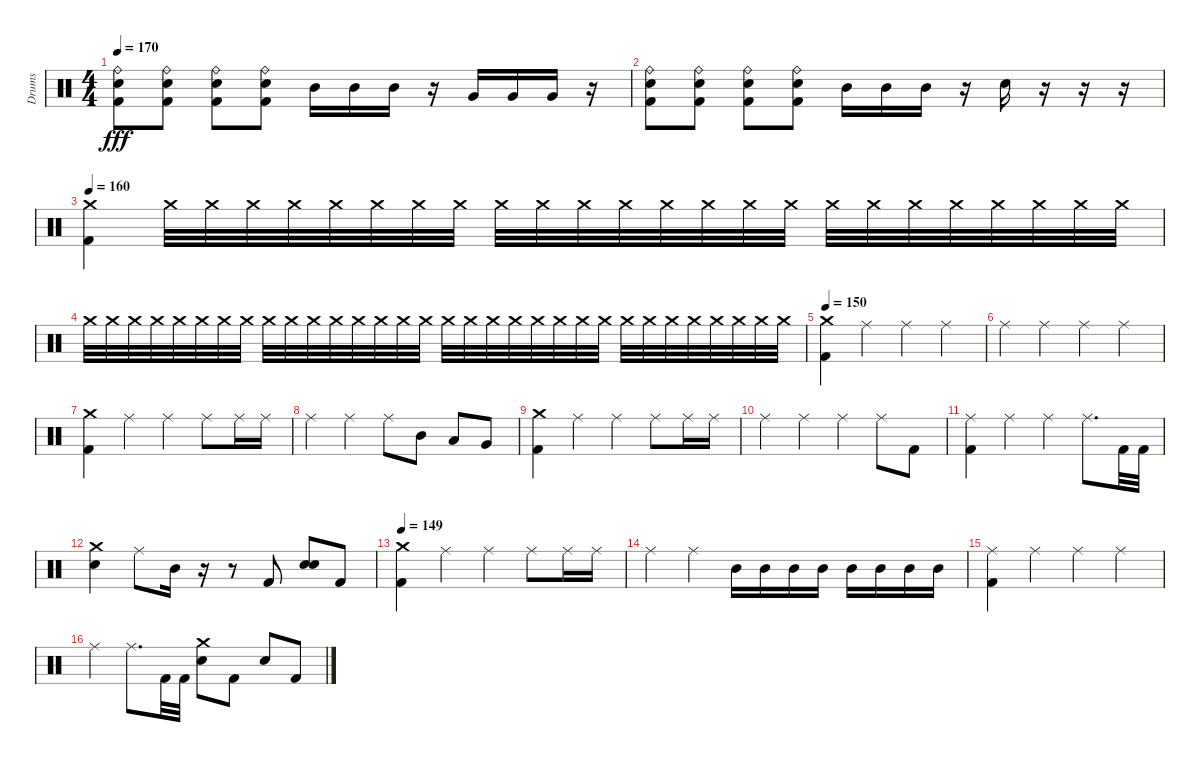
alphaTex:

\track ("Drums" "Drums") {instrument percussion}
\staff {score}
\articulation defaults
\ts (4 4)
\tempo 170
\clef neutral
\ks c
("Ride (bell)" "Electric Snare (hit)" "Kick (hit) 2").8{dy fff} ("Ride (bell)" "Electric Snare (hit)" "Kick (hit) 2").8 ("Ride (bell)" "Electric Snare (hit)" "Kick (hit) 2").8 ("Ride (bell)" "Electric Snare (hit)" "Kick (hit) 2").8 "Mid Tom (hit)".16 "Mid Tom (hit)".16 "Mid Tom (hit)".16 r.16 "Very Low Tom (hit)".16 "Very Low Tom (hit)".16 "Very Low Tom (hit)".16 r.16 |
("Ride (bell)" "Electric Snare (hit)" "Kick (hit) 2").8 ("Ride (bell)" "Electric Snare (hit)" "Kick (hit) 2").8 ("Ride (bell)" "Electric Snare (hit)" "Kick (hit) 2").8 ("Ride (bell)" "Electric Snare (hit)" "Kick (hit) 2").8 "Mid Tom (hit)".16 "Mid Tom (hit)".16 "Mid Tom (hit)".16 r.16 "Electric Snare (hit)".16 r.16 r.16 r.16 |
\tempo 160
("Crash medium (hit)" "Kick (hit) 2").4 "Crash medium (hit)".32{volume 6} "Crash medium (hit)".32 "Crash medium (hit)".32 "Crash medium (hit)".32 "Crash medium (hit)".32 "Crash medium (hit)".32 "Crash medium (hit)".32 "Crash medium (hit)".32 "Crash medium (hit)".32{volume 8} "Crash medium (hit)".32 "Crash medium (hit)".32 "Crash medium (hit)".32 "Crash medium (hit)".32 "Crash medium (hit)".32 "Crash medium (hit)".32 "Crash medium (hit)".32 "Crash medium (hit)".32 "Crash medium (hit)".32 "Crash medium (hit)".32 "Crash medium (hit)".32 "Crash medium (hit)".32 "Crash medium (hit)".32 "Crash medium (hit)".32 "Crash medium (hit)".32 |
"Crash medium (hit)".32 "Crash medium (hit)".32 "Crash medium (hit)".32 "Crash medium (hit)".32 "Crash medium (hit)".32 "Crash medium (hit)".32 "Crash medium (hit)".32 "Crash medium (hit)".32 "Crash medium (hit)".32 "Crash medium (hit)".32 "Crash medium (hit)".32 "Crash medium (hit)".32 "Crash medium (hit)".32 "Crash medium (hit)".32 "Crash medium (hit)".32 "Crash medium (hit)".32 "Crash medium (hit)".32 "Crash medium (hit)".32 "Crash medium (hit)".32 "Crash medium (hit)".32 "Crash medium (hit)".32 "Crash medium (hit)".32 "Crash medium (hit)".32 "Crash medium (hit)".32 "Crash medium (hit)".32 "Crash medium (hit)".32 "Crash medium (hit)".32 "Crash medium (hit)".32 "Crash medium (hit)".32 "Crash medium (hit)".32 "Crash medium (hit)".32 "Crash medium (hit)".32 |
\tempo 150
("Crash medium (hit)" "Kick (hit) 2").4{volume 12} "Ride (middle)".4 "Ride (middle)".4 "Ride (middle)".4 |
"Ride (middle)".4 "Ride (middle)".4 "Ride (middle)".4 "Ride (middle)".4 |
("Crash medium (hit)" "Kick (hit) 2").4 "Ride (middle)".4 "Ride (middle)".4 "Ride (middle)".8 "Ride (middle)".16 "Ride (middle)".16 |
"Ride (middle)".4 "Ride (middle)".4 "Ride (middle)".8 "Mid Tom (hit)".8 "Low Tom (hit)".8 "Very Low Tom (hit)".8 |
("Crash medium (hit)" "Kick (hit) 2").4 "Ride (middle)".4 "Ride (middle)".4 "Ride (middle)".8 "Ride (middle)".16 "Ride (middle)".16 |
"Ride (middle)".4 "Ride (middle)".4 "Ride (middle)".4 "Ride (middle)".8 "Kick (hit) 2".8 |
("Ride (middle)" "Kick (hit) 2").4 "Ride (middle)".4 "Ride (middle)".4 "Ride (middle)".8{d} "Kick (hit) 2".32 "Kick (hit) 2".32 |
("Crash medium (hit)" "Electric Snare (hit)").4 "Ride (middle)".8 "Mid Tom (hit)".16 r.16 r.8 "Kick (hit) 2".8 ("Electric Snare (hit)" "Electric Snare (hit)").8 "Kick (hit) 2".8 |
\tempo 149
("Crash medium (hit)" "Kick (hit) 2").4 "Ride (middle)".4 "Ride (middle)".4 "Ride (middle)".8 "Ride (middle)".16 "Ride (middle)".16 |
"Ride (middle)".4 "Ride (middle)".4 "Mid Tom (hit)".16 "Mid Tom (hit)".16 "Mid Tom (hit)".16 "Mid Tom (hit)".16 "Mid Tom (hit)".16 "Mid Tom (hit)".16 "Mid Tom (hit)".16 "Mid Tom (hit)".16 |
("Ride (middle)" "Kick (hit) 2").4 "Ride (middle)".4 "Ride (middle)".4 "Ride (middle)".4 |
"Ride (middle)".4 "Ride (middle)".8{d} "Kick (hit) 2".32 "Kick (hit) 2".32 ("Crash medium (hit)" "Electric Snare (hit)").8 "Kick (hit) 2".8 "Electric Snare (hit)".8 "Kick (hit) 2".8
